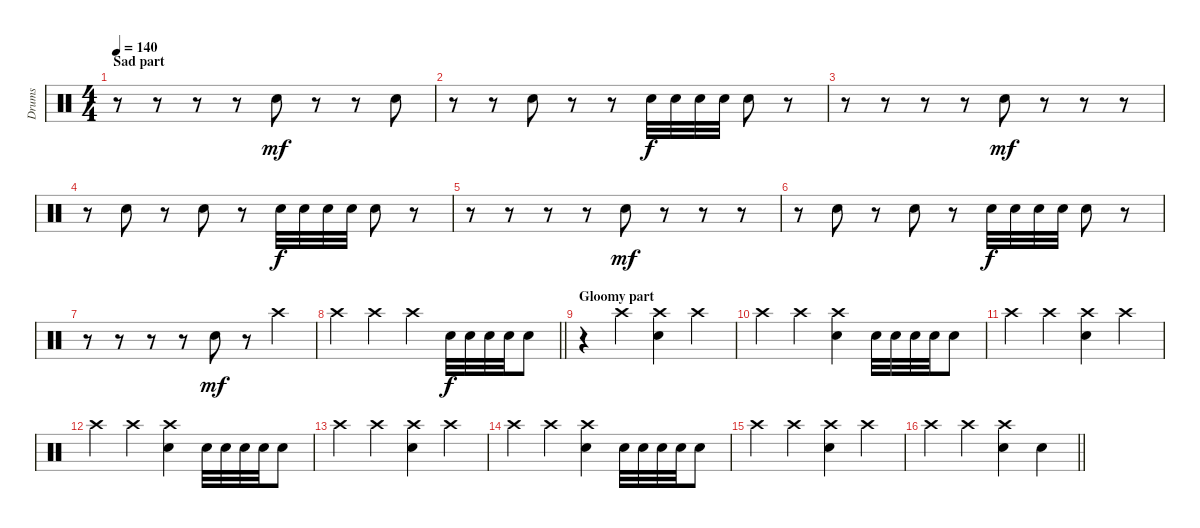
\track ("Drums" "Drums") {instrument percussion}
\staff {score}
\articulation defaults
\ts (4 4)
\section ("" "Sad part")
\tempo 140
\clef neutral
\ks c
r.8{dy mf} r.8 r.8 r.8 "Snare (hit) 2".8 r.8 r.8 "Snare (hit) 2".8 |
r.8 r.8 "Snare (hit) 2".8 r.8 r.8 "Electric Snare (hit)".32{dy f} "Electric Snare (hit)".32 "Electric Snare (hit)".32 "Electric Snare (hit)".32 "Electric Snare (hit)".8 r.8 |
r.8 r.8 r.8 r.8 "Snare (hit) 2".8{dy mf} r.8 r.8 r.8 |
r.8 "Snare (hit) 2".8 r.8 "Snare (hit) 2".8 r.8 "Electric Snare (hit)".32{dy f} "Electric Snare (hit)".32 "Electric Snare (hit)".32 "Electric Snare (hit)".32 "Electric Snare (hit)".8 r.8 |
r.8 r.8 r.8 r.8 "Snare (hit) 2".8{dy mf} r.8 r.8 r.8 |
r.8 "Snare (hit) 2".8 r.8 "Snare (hit) 2".8 r.8 "Electric Snare (hit)".32{dy f} "Electric Snare (hit)".32 "Electric Snare (hit)".32 "Electric Snare (hit)".32 "Electric Snare (hit)".8 r.8 |
r.8 r.8 r.8 r.8 "Snare (hit) 2".8{dy mf} r.8 "Crash high (hit)".4 |
\barLineRight lightlight "Crash high (hit)".4 "Crash high (hit)".4 "Crash high (hit)".4 "Electric Snare (hit)".32{dy f} "Electric Snare (hit)".32 "Electric Snare (hit)".32 "Electric Snare (hit)".32 "Electric Snare (hit)".8
|
\section ("" "Gloomy part")
r.4 "Crash high (hit)".4 ("Crash high (hit)" "Snare (hit) 2").4 "Crash high (hit)".4 |
"Crash high (hit)".4 "Crash high (hit)".4 ("Crash high (hit)" "Snare (hit) 2").4 "Electric Snare (hit)".32 "Electric Snare (hit)".32 "Electric Snare (hit)".32 "Electric Snare (hit)".32 "Electric Snare (hit)".8 |
"Crash high (hit)".4 "Crash high (hit)".4 ("Crash high (hit)" "Snare (hit) 2").4 "Crash high (hit)".4 |
"Crash high (hit)".4 "Crash high (hit)".4 ("Crash high (hit)" "Snare (hit) 2").4 "Electric Snare (hit)".32 "Electric Snare (hit)".32 "Electric Snare (hit)".32 "Electric Snare (hit)".32 "Electric Snare (hit)".8 |
"Crash high (hit)".4 "Crash high (hit)".4 ("Crash high (hit)" "Snare (hit) 2").4 "Crash high (hit)".4 |
"Crash high (hit)".4 "Crash high (hit)".4 ("Crash high (hit)" "Snare (hit) 2").4 "Electric Snare (hit)".32 "Electric Snare (hit)".32 "Electric Snare (hit)".32 "Electric Snare (hit)".32 "Electric Snare (hit)".8 |
"Crash high (hit)".4 "Crash high (hit)".4 ("Crash high (hit)" "Snare (hit) 2").4 "Crash high (hit)".4 |
\barLineRight lightlight "Crash high (hit)".4 "Crash high (hit)".4
("Crash high (hit)" "Snare (hit) 2").4 "Snare (hit) 2".4
